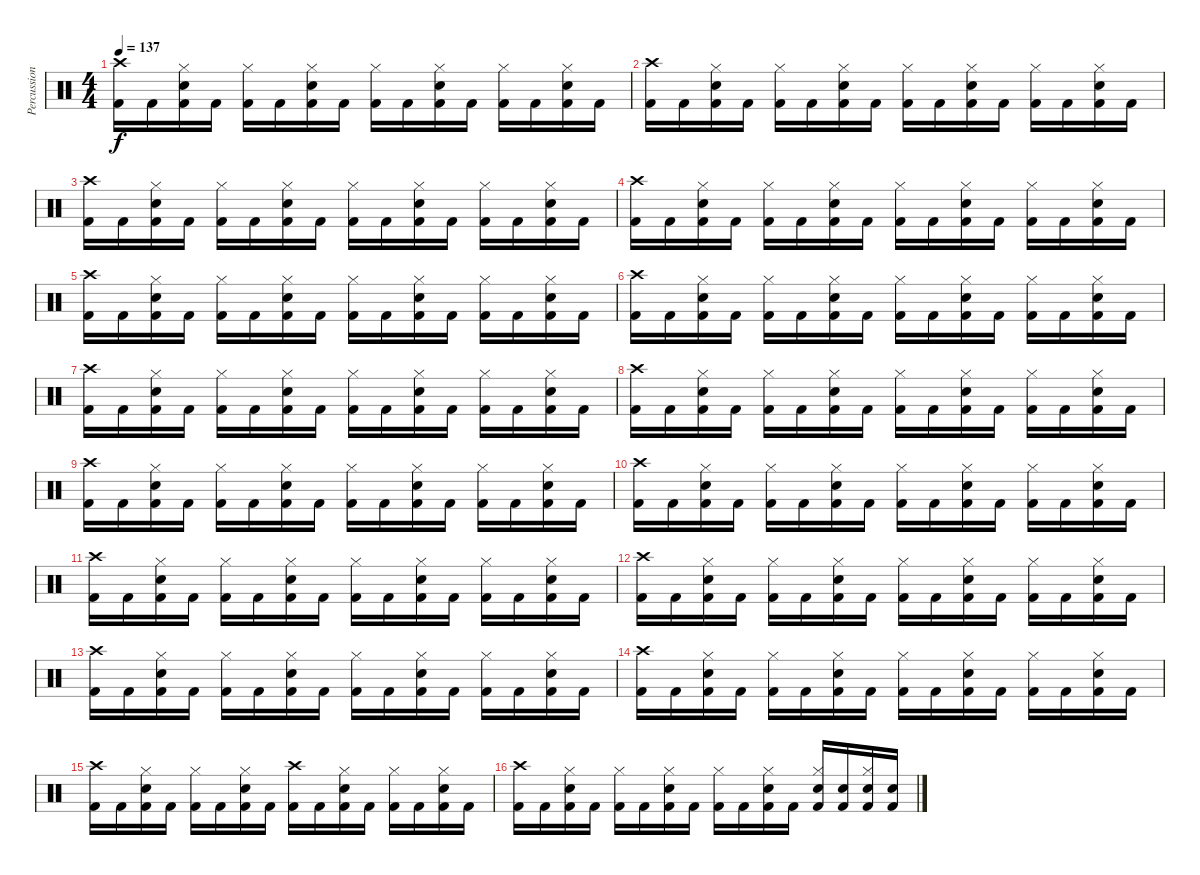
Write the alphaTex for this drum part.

\track ("Percussion" "Percussion") {instrument percussion}
\staff {score}
\articulation defaults
\ts (4 4)
\tempo 137
\clef neutral
\ks c
("Crash high (hit)" "Kick (hit) 2").16{dy f} "Kick (hit) 2".16 ("Hi-Hat (closed)" "Snare (hit) 2" "Kick (hit) 2").16 "Kick (hit) 2".16 ("Hi-Hat (closed)" "Kick (hit) 2").16 "Kick (hit) 2".16 ("Hi-Hat (closed)" "Snare (hit) 2" "Kick (hit) 2").16 "Kick (hit) 2".16 ("Hi-Hat (closed)" "Kick (hit) 2").16 "Kick (hit) 2".16 ("Hi-Hat (closed)" "Snare (hit) 2" "Kick (hit) 2").16 "Kick (hit) 2".16 ("Hi-Hat (closed)" "Kick (hit) 2").16 "Kick (hit) 2".16 ("Hi-Hat (closed)" "Snare (hit) 2" "Kick (hit) 2").16 "Kick (hit) 2".16 |
("Crash high (hit)" "Kick (hit) 2").16 "Kick (hit) 2".16 ("Hi-Hat (closed)" "Snare (hit) 2" "Kick (hit) 2").16 "Kick (hit) 2".16 ("Hi-Hat (closed)" "Kick (hit) 2").16 "Kick (hit) 2".16 ("Hi-Hat (closed)" "Snare (hit) 2" "Kick (hit) 2").16 "Kick (hit) 2".16 ("Hi-Hat (closed)" "Kick (hit) 2").16 "Kick (hit) 2".16 ("Hi-Hat (closed)" "Snare (hit) 2" "Kick (hit) 2").16 "Kick (hit) 2".16 ("Hi-Hat (closed)" "Kick (hit) 2").16 "Kick (hit) 2".16 ("Hi-Hat (closed)" "Snare (hit) 2" "Kick (hit) 2").16 "Kick (hit) 2".16 |
("Crash high (hit)" "Kick (hit) 2").16 "Kick (hit) 2".16 ("Hi-Hat (closed)" "Snare (hit) 2" "Kick (hit) 2").16 "Kick (hit) 2".16 ("Hi-Hat (closed)" "Kick (hit) 2").16 "Kick (hit) 2".16 ("Hi-Hat (closed)" "Snare (hit) 2" "Kick (hit) 2").16 "Kick (hit) 2".16 ("Hi-Hat (closed)" "Kick (hit) 2").16 "Kick (hit) 2".16 ("Hi-Hat (closed)" "Snare (hit) 2" "Kick (hit) 2").16 "Kick (hit) 2".16 ("Hi-Hat (closed)" "Kick (hit) 2").16 "Kick (hit) 2".16 ("Hi-Hat (closed)" "Snare (hit) 2" "Kick (hit) 2").16 "Kick (hit) 2".16 |
("Crash high (hit)" "Kick (hit) 2").16 "Kick (hit) 2".16 ("Hi-Hat (closed)" "Snare (hit) 2" "Kick (hit) 2").16 "Kick (hit) 2".16 ("Hi-Hat (closed)" "Kick (hit) 2").16 "Kick (hit) 2".16 ("Hi-Hat (closed)" "Snare (hit) 2" "Kick (hit) 2").16 "Kick (hit) 2".16 ("Hi-Hat (closed)" "Kick (hit) 2").16 "Kick (hit) 2".16 ("Hi-Hat (closed)" "Snare (hit) 2" "Kick (hit) 2").16 "Kick (hit) 2".16 ("Hi-Hat (closed)" "Kick (hit) 2").16 "Kick (hit) 2".16 ("Hi-Hat (closed)" "Snare (hit) 2" "Kick (hit) 2").16 "Kick (hit) 2".16 |
("Crash high (hit)" "Kick (hit) 2").16 "Kick (hit) 2".16 ("Hi-Hat (closed)" "Snare (hit) 2" "Kick (hit) 2").16 "Kick (hit) 2".16 ("Hi-Hat (closed)" "Kick (hit) 2").16 "Kick (hit) 2".16 ("Hi-Hat (closed)" "Snare (hit) 2" "Kick (hit) 2").16 "Kick (hit) 2".16 ("Hi-Hat (closed)" "Kick (hit) 2").16 "Kick (hit) 2".16 ("Hi-Hat (closed)" "Snare (hit) 2" "Kick (hit) 2").16 "Kick (hit) 2".16 ("Hi-Hat (closed)" "Kick (hit) 2").16 "Kick (hit) 2".16 ("Hi-Hat (closed)" "Snare (hit) 2" "Kick (hit) 2").16 "Kick (hit) 2".16 |
("Crash high (hit)" "Kick (hit) 2").16 "Kick (hit) 2".16 ("Hi-Hat (closed)" "Snare (hit) 2" "Kick (hit) 2").16 "Kick (hit) 2".16 ("Hi-Hat (closed)" "Kick (hit) 2").16 "Kick (hit) 2".16 ("Hi-Hat (closed)" "Snare (hit) 2" "Kick (hit) 2").16 "Kick (hit) 2".16 ("Hi-Hat (closed)" "Kick (hit) 2").16 "Kick (hit) 2".16 ("Hi-Hat (closed)" "Snare (hit) 2" "Kick (hit) 2").16 "Kick (hit) 2".16 ("Hi-Hat (closed)" "Kick (hit) 2").16 "Kick (hit) 2".16 ("Hi-Hat (closed)" "Snare (hit) 2" "Kick (hit) 2").16 "Kick (hit) 2".16 |
("Crash high (hit)" "Kick (hit) 2").16 "Kick (hit) 2".16 ("Hi-Hat (closed)" "Snare (hit) 2" "Kick (hit) 2").16 "Kick (hit) 2".16 ("Hi-Hat (closed)" "Kick (hit) 2").16 "Kick (hit) 2".16 ("Hi-Hat (closed)" "Snare (hit) 2" "Kick (hit) 2").16 "Kick (hit) 2".16 ("Hi-Hat (closed)" "Kick (hit) 2").16 "Kick (hit) 2".16 ("Hi-Hat (closed)" "Snare (hit) 2" "Kick (hit) 2").16 "Kick (hit) 2".16 ("Hi-Hat (closed)" "Kick (hit) 2").16 "Kick (hit) 2".16 ("Hi-Hat (closed)" "Snare (hit) 2" "Kick (hit) 2").16 "Kick (hit) 2".16 |
("Crash high (hit)" "Kick (hit) 2").16 "Kick (hit) 2".16 ("Hi-Hat (closed)" "Snare (hit) 2" "Kick (hit) 2").16 "Kick (hit) 2".16 ("Hi-Hat (closed)" "Kick (hit) 2").16 "Kick (hit) 2".16 ("Hi-Hat (closed)" "Snare (hit) 2" "Kick (hit) 2").16 "Kick (hit) 2".16 ("Hi-Hat (closed)" "Kick (hit) 2").16 "Kick (hit) 2".16 ("Hi-Hat (closed)" "Snare (hit) 2" "Kick (hit) 2").16 "Kick (hit) 2".16 ("Hi-Hat (closed)" "Kick (hit) 2").16 "Kick (hit) 2".16 ("Hi-Hat (closed)" "Snare (hit) 2" "Kick (hit) 2").16 "Kick (hit) 2".16 |
("Crash high (hit)" "Kick (hit) 2").16 "Kick (hit) 2".16 ("Hi-Hat (closed)" "Snare (hit) 2" "Kick (hit) 2").16 "Kick (hit) 2".16 ("Hi-Hat (closed)" "Kick (hit) 2").16 "Kick (hit) 2".16 ("Hi-Hat (closed)" "Snare (hit) 2" "Kick (hit) 2").16 "Kick (hit) 2".16 ("Hi-Hat (closed)" "Kick (hit) 2").16 "Kick (hit) 2".16 ("Hi-Hat (closed)" "Snare (hit) 2" "Kick (hit) 2").16 "Kick (hit) 2".16 ("Hi-Hat (closed)" "Kick (hit) 2").16 "Kick (hit) 2".16 ("Hi-Hat (closed)" "Snare (hit) 2" "Kick (hit) 2").16 "Kick (hit) 2".16 |
("Crash high (hit)" "Kick (hit) 2").16 "Kick (hit) 2".16 ("Hi-Hat (closed)" "Snare (hit) 2" "Kick (hit) 2").16 "Kick (hit) 2".16 ("Hi-Hat (closed)" "Kick (hit) 2").16 "Kick (hit) 2".16 ("Hi-Hat (closed)" "Snare (hit) 2" "Kick (hit) 2").16 "Kick (hit) 2".16 ("Hi-Hat (closed)" "Kick (hit) 2").16 "Kick (hit) 2".16 ("Hi-Hat (closed)" "Snare (hit) 2" "Kick (hit) 2").16 "Kick (hit) 2".16 ("Hi-Hat (closed)" "Kick (hit) 2").16 "Kick (hit) 2".16 ("Hi-Hat (closed)" "Snare (hit) 2" "Kick (hit) 2").16 "Kick (hit) 2".16 |
("Crash high (hit)" "Kick (hit) 2").16 "Kick (hit) 2".16 ("Hi-Hat (closed)" "Snare (hit) 2" "Kick (hit) 2").16 "Kick (hit) 2".16 ("Hi-Hat (closed)" "Kick (hit) 2").16 "Kick (hit) 2".16 ("Hi-Hat (closed)" "Snare (hit) 2" "Kick (hit) 2").16 "Kick (hit) 2".16 ("Hi-Hat (closed)" "Kick (hit) 2").16 "Kick (hit) 2".16 ("Hi-Hat (closed)" "Snare (hit) 2" "Kick (hit) 2").16 "Kick (hit) 2".16 ("Hi-Hat (closed)" "Kick (hit) 2").16 "Kick (hit) 2".16 ("Hi-Hat (closed)" "Snare (hit) 2" "Kick (hit) 2").16 "Kick (hit) 2".16 |
("Crash high (hit)" "Kick (hit) 2").16 "Kick (hit) 2".16 ("Hi-Hat (closed)" "Snare (hit) 2" "Kick (hit) 2").16 "Kick (hit) 2".16 ("Hi-Hat (closed)" "Kick (hit) 2").16 "Kick (hit) 2".16 ("Hi-Hat (closed)" "Snare (hit) 2" "Kick (hit) 2").16 "Kick (hit) 2".16 ("Hi-Hat (closed)" "Kick (hit) 2").16 "Kick (hit) 2".16 ("Hi-Hat (closed)" "Snare (hit) 2" "Kick (hit) 2").16 "Kick (hit) 2".16 ("Hi-Hat (closed)" "Kick (hit) 2").16 "Kick (hit) 2".16 ("Hi-Hat (closed)" "Snare (hit) 2" "Kick (hit) 2").16 "Kick (hit) 2".16 |
("Crash high (hit)" "Kick (hit) 2").16 "Kick (hit) 2".16 ("Hi-Hat (closed)" "Snare (hit) 2" "Kick (hit) 2").16 "Kick (hit) 2".16 ("Hi-Hat (closed)" "Kick (hit) 2").16 "Kick (hit) 2".16 ("Hi-Hat (closed)" "Snare (hit) 2" "Kick (hit) 2").16 "Kick (hit) 2".16 ("Hi-Hat (closed)" "Kick (hit) 2").16 "Kick (hit) 2".16 ("Hi-Hat (closed)" "Snare (hit) 2" "Kick (hit) 2").16 "Kick (hit) 2".16 ("Hi-Hat (closed)" "Kick (hit) 2").16 "Kick (hit) 2".16 ("Hi-Hat (closed)" "Snare (hit) 2" "Kick (hit) 2").16 "Kick (hit) 2".16 |
("Crash high (hit)" "Kick (hit) 2").16 "Kick (hit) 2".16 ("Hi-Hat (closed)" "Snare (hit) 2" "Kick (hit) 2").16 "Kick (hit) 2".16 ("Hi-Hat (closed)" "Kick (hit) 2").16 "Kick (hit) 2".16 ("Hi-Hat (closed)" "Snare (hit) 2" "Kick (hit) 2").16 "Kick (hit) 2".16 ("Hi-Hat (closed)" "Kick (hit) 2").16 "Kick (hit) 2".16 ("Hi-Hat (closed)" "Snare (hit) 2" "Kick (hit) 2").16 "Kick (hit) 2".16 ("Hi-Hat (closed)" "Kick (hit) 2").16 "Kick (hit) 2".16 ("Hi-Hat (closed)" "Snare (hit) 2" "Kick (hit) 2").16 "Kick (hit) 2".16 |
("Crash high (hit)" "Kick (hit) 2").16 "Kick (hit) 2".16 ("Hi-Hat (closed)" "Snare (hit) 2" "Kick (hit) 2").16 "Kick (hit) 2".16 ("Hi-Hat (closed)" "Kick (hit) 2").16 "Kick (hit) 2".16 ("Hi-Hat (closed)" "Snare (hit) 2" "Kick (hit) 2").16 "Kick (hit) 2".16 ("Crash high (hit)" "Kick (hit) 2").16 "Kick (hit) 2".16 ("Hi-Hat (closed)" "Snare (hit) 2" "Kick (hit) 2").16 "Kick (hit) 2".16 ("Hi-Hat (closed)" "Kick (hit) 2").16 "Kick (hit) 2".16 ("Hi-Hat (closed)" "Snare (hit) 2" "Kick (hit) 2").16 "Kick (hit) 2".16 |
("Crash high (hit)" "Kick (hit) 2").16 "Kick (hit) 2".16 ("Hi-Hat (closed)" "Snare (hit) 2" "Kick (hit) 2").16 "Kick (hit) 2".16 ("Hi-Hat (closed)" "Kick (hit) 2").16 "Kick (hit) 2".16 ("Hi-Hat (closed)" "Snare (hit) 2" "Kick (hit) 2").16 "Kick (hit) 2".16 ("Hi-Hat (closed)" "Kick (hit) 2").16 "Kick (hit) 2".16 ("Hi-Hat (closed)" "Snare (hit) 2" "Kick (hit) 2").16 "Kick (hit) 2".16 ("Hi-Hat (closed)" "Snare (hit) 2" "Kick (hit) 2").16 ("Snare (hit) 2" "Kick (hit) 2").16 ("Hi-Hat (closed)" "Snare (hit) 2" "Kick (hit) 2").16 ("Snare (hit) 2" "Kick (hit) 2").16
